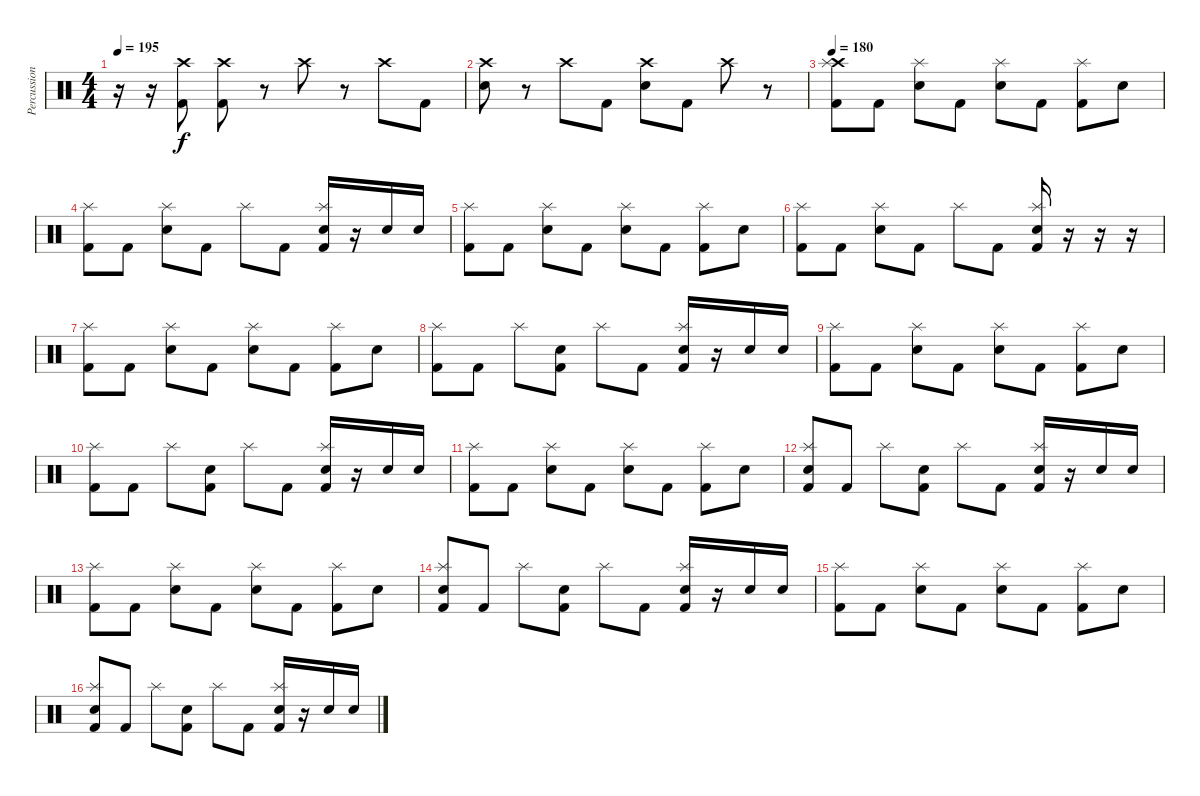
\track ("Percussion" "Percussion") {instrument percussion}
\staff {score}
\articulation defaults
\ts (4 4)
\tempo 195
\clef neutral
\ks c
r.16{dy f} r.16 ("Crash high (hit)" "Kick (hit) 2").8 ("Crash high (hit)" "Kick (hit) 2").8 r.8 "Crash high (hit)".8 r.8 "Crash high (hit)".8 "Kick (hit) 2".8 |
("Crash high (hit)" "Electric Snare (hit)").8 r.8 "Crash high (hit)".8 "Kick (hit) 2".8 ("Crash high (hit)" "Electric Snare (hit)").8 "Kick (hit) 2".8 "Crash high (hit)".8 r.8 |
\tempo 180
("Crash high (hit)" "Splash (hit)" "Kick (hit) 2").8 "Kick (hit) 2".8 ("Splash (hit)" "Snare (hit) 2").8 "Kick (hit) 2".8 ("Splash (hit)" "Snare (hit) 2").8 "Kick (hit) 2".8 ("Splash (hit)" "Kick (hit) 2").8 "Snare (hit) 2".8 |
("Splash (hit)" "Kick (hit) 2").8 "Kick (hit) 2".8 ("Splash (hit)" "Snare (hit) 2").8 "Kick (hit) 2".8 "Splash (hit)".8 "Kick (hit) 2".8 ("Splash (hit)" "Snare (hit) 2" "Kick (hit) 2").16 r.16 "Snare (hit) 2".16 "Snare (hit) 2".16 |
("Splash (hit)" "Kick (hit) 2").8 "Kick (hit) 2".8 ("Splash (hit)" "Snare (hit) 2").8 "Kick (hit) 2".8 ("Splash (hit)" "Snare (hit) 2").8 "Kick (hit) 2".8 ("Splash (hit)" "Kick (hit) 2").8 "Snare (hit) 2".8 |
("Splash (hit)" "Kick (hit) 2").8 "Kick (hit) 2".8 ("Splash (hit)" "Snare (hit) 2").8 "Kick (hit) 2".8 "Splash (hit)".8 "Kick (hit) 2".8 ("Splash (hit)" "Snare (hit) 2" "Kick (hit) 2").16 r.16 r.16 r.16 |
("Splash (hit)" "Kick (hit) 2").8 "Kick (hit) 2".8 ("Splash (hit)" "Snare (hit) 2").8 "Kick (hit) 2".8 ("Splash (hit)" "Snare (hit) 2").8 "Kick (hit) 2".8 ("Splash (hit)" "Kick (hit) 2").8 "Snare (hit) 2".8 |
("Splash (hit)" "Kick (hit) 2").8 "Kick (hit) 2".8 "Splash (hit)".8 ("Snare (hit) 2" "Kick (hit) 2").8 "Splash (hit)".8 "Kick (hit) 2".8 ("Splash (hit)" "Snare (hit) 2" "Kick (hit) 2").16 r.16 "Snare (hit) 2".16 "Snare (hit) 2".16 |
("Splash (hit)" "Kick (hit) 2").8 "Kick (hit) 2".8 ("Splash (hit)" "Snare (hit) 2").8 "Kick (hit) 2".8 ("Splash (hit)" "Snare (hit) 2").8 "Kick (hit) 2".8 ("Splash (hit)" "Kick (hit) 2").8 "Snare (hit) 2".8 |
("Splash (hit)" "Kick (hit) 2").8 "Kick (hit) 2".8 "Splash (hit)".8 ("Snare (hit) 2" "Kick (hit) 2").8 "Splash (hit)".8 "Kick (hit) 2".8 ("Splash (hit)" "Snare (hit) 2" "Kick (hit) 2").16 r.16 "Snare (hit) 2".16 "Snare (hit) 2".16 |
("Splash (hit)" "Kick (hit) 2").8 "Kick (hit) 2".8 ("Splash (hit)" "Snare (hit) 2").8 "Kick (hit) 2".8 ("Splash (hit)" "Snare (hit) 2").8 "Kick (hit) 2".8 ("Splash (hit)" "Kick (hit) 2").8 "Snare (hit) 2".8 |
("Splash (hit)" "Snare (hit) 2" "Kick (hit) 2").8 "Kick (hit) 2".8 "Splash (hit)".8 ("Snare (hit) 2" "Kick (hit) 2").8 "Splash (hit)".8 "Kick (hit) 2".8 ("Splash (hit)" "Snare (hit) 2" "Kick (hit) 2").16 r.16 "Snare (hit) 2".16 "Snare (hit) 2".16 |
("Splash (hit)" "Kick (hit) 2").8 "Kick (hit) 2".8 ("Splash (hit)" "Snare (hit) 2").8 "Kick (hit) 2".8 ("Splash (hit)" "Snare (hit) 2").8 "Kick (hit) 2".8 ("Splash (hit)" "Kick (hit) 2").8 "Snare (hit) 2".8 |
("Splash (hit)" "Snare (hit) 2" "Kick (hit) 2").8 "Kick (hit) 2".8 "Splash (hit)".8 ("Snare (hit) 2" "Kick (hit) 2").8 "Splash (hit)".8 "Kick (hit) 2".8 ("Splash (hit)" "Snare (hit) 2" "Kick (hit) 2").16 r.16 "Snare (hit) 2".16 "Snare (hit) 2".16 |
("Splash (hit)" "Kick (hit) 2").8 "Kick (hit) 2".8 ("Splash (hit)" "Snare (hit) 2").8 "Kick (hit) 2".8 ("Splash (hit)" "Snare (hit) 2").8 "Kick (hit) 2".8 ("Splash (hit)" "Kick (hit) 2").8 "Snare (hit) 2".8 |
("Splash (hit)" "Snare (hit) 2" "Kick (hit) 2").8 "Kick (hit) 2".8 "Splash (hit)".8 ("Snare (hit) 2" "Kick (hit) 2").8 "Splash (hit)".8 "Kick (hit) 2".8 ("Splash (hit)" "Snare (hit) 2" "Kick (hit) 2").16 r.16 "Snare (hit) 2".16 "Snare (hit) 2".16
